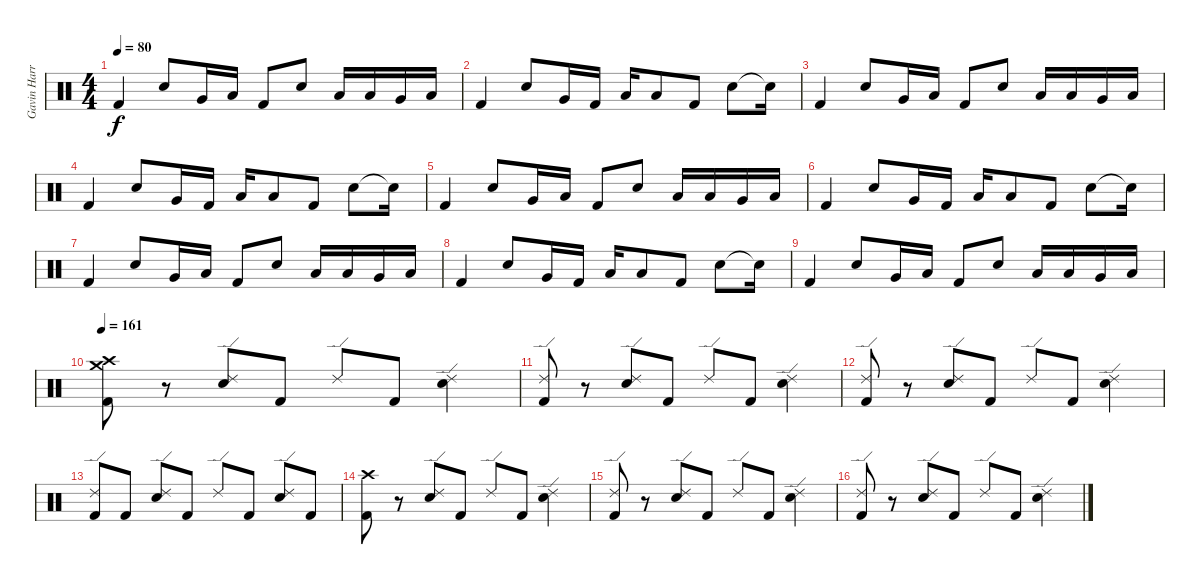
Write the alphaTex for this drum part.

\track ("Gavin Harrison (Drums)" "Gavin Harr") {instrument percussion}
\staff {score}
\articulation defaults
\ts (4 4)
\tempo 80
\clef neutral
\ks c "Kick (hit) 2".4{dy f} "Snare (hit) 2".8 "Very Low Tom (hit)".16 "Low Floor Tom (hit)".16 "Kick (hit) 2".8 "Snare (hit) 2".8 "Low Tom (hit)".16 "Low Tom (hit)".16 "Very Low Tom (hit)".16 "Low Floor Tom (hit)".16
|
"Kick (hit) 2".4 "Snare (hit) 2".8 "Very Low Tom (hit)".16 "Kick (hit) 2".16 "Low Floor Tom (hit)".16 "Low Floor Tom (hit)".8 "Kick (hit) 2".8 "Snare (hit) 2".8 "Snare (hit)"{t}.16 |
"Kick (hit) 2".4 "Snare (hit) 2".8 "Very Low Tom (hit)".16 "Low Floor Tom (hit)".16 "Kick (hit) 2".8 "Snare (hit) 2".8 "Low Tom (hit)".16 "Low Tom (hit)".16 "Very Low Tom (hit)".16 "Low Floor Tom (hit)".16 |
"Kick (hit) 2".4 "Snare (hit) 2".8 "Very Low Tom (hit)".16 "Kick (hit) 2".16 "Low Floor Tom (hit)".16 "Low Floor Tom (hit)".8 "Kick (hit) 2".8 "Snare (hit) 2".8 "Snare (hit)"{t}.16 |
"Kick (hit) 2".4 "Snare (hit) 2".8 "Very Low Tom (hit)".16 "Low Floor Tom (hit)".16 "Kick (hit) 2".8 "Snare (hit) 2".8 "Low Tom (hit)".16 "Low Tom (hit)".16 "Very Low Tom (hit)".16 "Low Floor Tom (hit)".16 |
"Kick (hit) 2".4 "Snare (hit) 2".8 "Very Low Tom (hit)".16 "Kick (hit) 2".16 "Low Floor Tom (hit)".16 "Low Floor Tom (hit)".8 "Kick (hit) 2".8 "Snare (hit) 2".8 "Snare (hit)"{t}.16 |
"Kick (hit) 2".4 "Snare (hit) 2".8 "Very Low Tom (hit)".16 "Low Floor Tom (hit)".16 "Kick (hit) 2".8 "Snare (hit) 2".8 "Low Tom (hit)".16 "Low Tom (hit)".16 "Very Low Tom (hit)".16 "Low Floor Tom (hit)".16 |
"Kick (hit) 2".4 "Snare (hit) 2".8 "Very Low Tom (hit)".16 "Kick (hit) 2".16 "Low Floor Tom (hit)".16 "Low Floor Tom (hit)".8 "Kick (hit) 2".8 "Snare (hit) 2".8 "Snare (hit)"{t}.16 |
"Kick (hit) 2".4 "Snare (hit) 2".8 "Very Low Tom (hit)".16 "Low Floor Tom (hit)".16 "Kick (hit) 2".8 "Snare (hit) 2".8 "Low Tom (hit)".16 "Low Tom (hit)".16 "Very Low Tom (hit)".16 "Low Floor Tom (hit)".16 |
\tempo 161
("Crash medium (hit)" "Crash high (hit)" "Kick (hit) 2").8{volume 16} r.8 ("Ride (edge) 2" "Electric Snare (hit)").8 "Kick (hit) 2".8 "Ride (edge) 2".8 "Kick (hit) 2".8 ("Ride (edge) 2" "Electric Snare (hit)").4 |
("Ride (edge) 2" "Kick (hit) 2").8 r.8 ("Ride (edge) 2" "Electric Snare (hit)").8 "Kick (hit) 2".8 "Ride (edge) 2".8 "Kick (hit) 2".8 ("Ride (edge) 2" "Electric Snare (hit)").4 |
("Ride (edge) 2" "Kick (hit) 2").8 r.8 ("Ride (edge) 2" "Electric Snare (hit)").8 "Kick (hit) 2".8 "Ride (edge) 2".8 "Kick (hit) 2".8 ("Ride (edge) 2" "Electric Snare (hit)").4 |
("Ride (edge) 2" "Kick (hit) 2").8 "Kick (hit) 2".8 ("Ride (edge) 2" "Electric Snare (hit)").8 "Kick (hit) 2".8 "Ride (edge) 2".8 "Kick (hit) 2".8 ("Ride (edge) 2" "Electric Snare (hit)").8 "Kick (hit) 2".8 |
("Crash high (hit)" "Kick (hit) 2").8 r.8 ("Ride (edge) 2" "Electric Snare (hit)").8 "Kick (hit) 2".8 "Ride (edge) 2".8 "Kick (hit) 2".8 ("Ride (edge) 2" "Electric Snare (hit)").4 |
("Ride (edge) 2" "Kick (hit) 2").8 r.8 ("Ride (edge) 2" "Electric Snare (hit)").8 "Kick (hit) 2".8 "Ride (edge) 2".8 "Kick (hit) 2".8 ("Ride (edge) 2" "Electric Snare (hit)").4 |
("Ride (edge) 2" "Kick (hit) 2").8 r.8 ("Ride (edge) 2" "Electric Snare (hit)").8 "Kick (hit) 2".8 "Ride (edge) 2".8 "Kick (hit) 2".8 ("Ride (edge) 2" "Electric Snare (hit)").4
